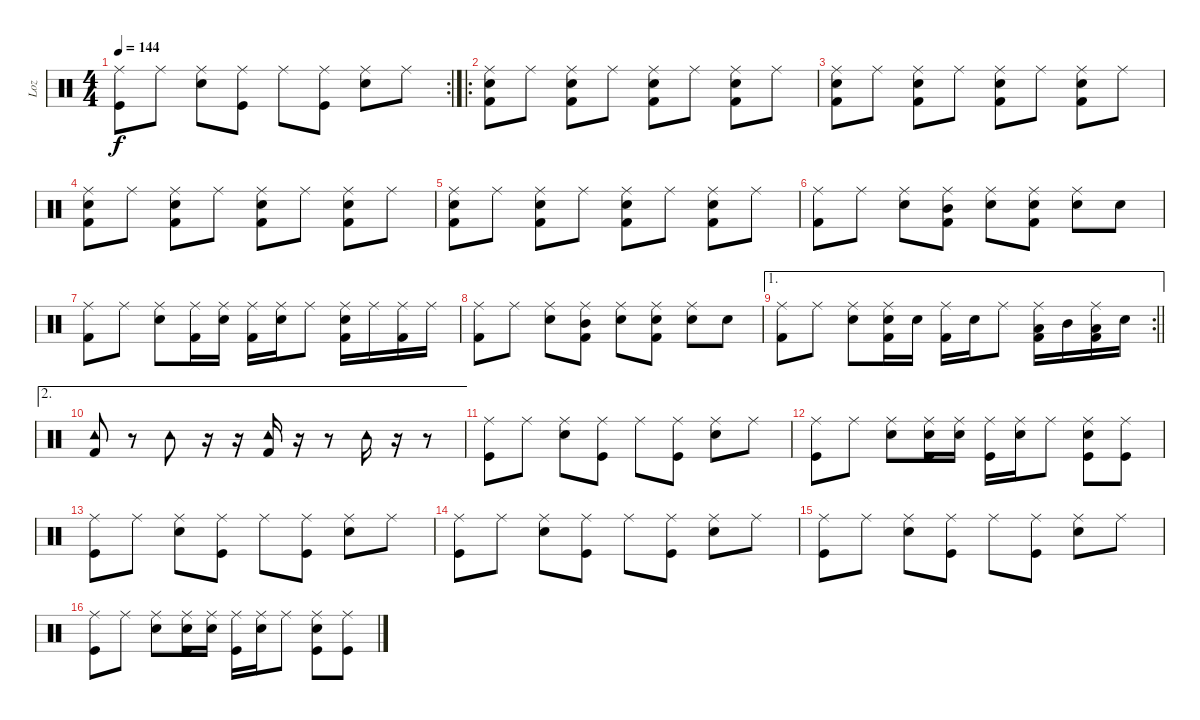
\track ("Loz" "Loz") {instrument percussion}
\staff {score}
\articulation defaults
\rc 2
\ts (4 4)
\tempo 144
\clef neutral
\ks c
("Ride (middle)" "Kick (hit)").8{dy f} "Ride (middle)".8 ("Ride (middle)" "Electric Snare (hit)").8 ("Ride (middle)" "Kick (hit)").8 "Ride (middle)".8 ("Ride (middle)" "Kick (hit)").8 ("Ride (middle)" "Electric Snare (hit)").8 "Ride (middle)".8 |
\ro
("Ride (middle)" "Electric Snare (hit)" "Kick (hit) 2").8 "Ride (middle)".8 ("Ride (middle)" "Electric Snare (hit)" "Kick (hit) 2").8 "Ride (middle)".8 ("Ride (middle)" "Electric Snare (hit)" "Kick (hit) 2").8 "Ride (middle)".8 ("Ride (middle)" "Electric Snare (hit)" "Kick (hit) 2").8 "Ride (middle)".8 |
("Ride (middle)" "Electric Snare (hit)" "Kick (hit) 2").8 "Ride (middle)".8 ("Ride (middle)" "Electric Snare (hit)" "Kick (hit) 2").8 "Ride (middle)".8 ("Ride (middle)" "Electric Snare (hit)" "Kick (hit) 2").8 "Ride (middle)".8 ("Ride (middle)" "Electric Snare (hit)" "Kick (hit) 2").8 "Ride (middle)".8 |
("Ride (middle)" "Electric Snare (hit)" "Kick (hit) 2").8 "Ride (middle)".8 ("Ride (middle)" "Electric Snare (hit)" "Kick (hit) 2").8 "Ride (middle)".8 ("Ride (middle)" "Electric Snare (hit)" "Kick (hit) 2").8 "Ride (middle)".8 ("Ride (middle)" "Electric Snare (hit)" "Kick (hit) 2").8 "Ride (middle)".8 |
("Ride (middle)" "Electric Snare (hit)" "Kick (hit) 2").8 "Ride (middle)".8 ("Ride (middle)" "Electric Snare (hit)" "Kick (hit) 2").8 "Ride (middle)".8 ("Ride (middle)" "Electric Snare (hit)" "Kick (hit) 2").8 "Ride (middle)".8 ("Ride (middle)" "Electric Snare (hit)" "Kick (hit) 2").8 "Ride (middle)".8 |
("Ride (middle)" "Kick (hit) 2").8 "Ride (middle)".8 ("Ride (middle)" "Electric Snare (hit)").8 ("Ride (middle)" "Mid Tom (hit)" "Kick (hit) 2").8 ("Ride (middle)" "Electric Snare (hit)").8 ("Ride (middle)" "Electric Snare (hit)" "Kick (hit) 2").8 ("Ride (middle)" "Electric Snare (hit)").8 "Electric Snare (hit)".8 |
("Ride (middle)" "Kick (hit) 2").8 "Ride (middle)".8 ("Ride (middle)" "Electric Snare (hit)").8 ("Ride (middle)" "Kick (hit) 2").16 ("Ride (middle)" "Electric Snare (hit)").16 ("Ride (middle)" "Kick (hit) 2").16 ("Ride (middle)" "Electric Snare (hit)").16 "Ride (middle)".8 ("Ride (middle)" "Electric Snare (hit)" "Kick (hit) 2").16 "Ride (middle)".16 ("Ride (middle)" "Kick (hit) 2").16 "Ride (middle)".16 |
("Ride (middle)" "Kick (hit) 2").8 "Ride (middle)".8 ("Ride (middle)" "Electric Snare (hit)").8 ("Ride (middle)" "Mid Tom (hit)" "Kick (hit) 2").8 ("Ride (middle)" "Electric Snare (hit)").8 ("Ride (middle)" "Electric Snare (hit)" "Kick (hit) 2").8 ("Ride (middle)" "Electric Snare (hit)").8 "Electric Snare (hit)".8 |
\ae 1
\rc 2
\barLineRight lightlight
("Ride (middle)" "Kick (hit) 2").8 "Ride (middle)".8 ("Ride (middle)" "Electric Snare (hit)").8 ("Ride (middle)" "Electric Snare (hit)" "Kick (hit) 2").16 "Electric Snare (hit)".16 ("Ride (middle)" "Kick (hit) 2").16 "Electric Snare (hit)".16 "Ride (middle)".8 ("Ride (middle)" "Low Tom (hit)" "Kick (hit) 2").16 "Mid Tom (hit)".16 ("Ride (middle)" "Low Tom (hit)" "Kick (hit) 2").16 "Electric Snare (hit)".16 |
\ae 2
("Tambourine (hit)" "Kick (hit) 2").8 r.8 "Tambourine (hit)".8 r.16 r.16 ("Tambourine (hit)" "Kick (hit) 2").16 r.16 r.8 "Tambourine (hit)".16 r.16 r.8 |
("Ride (middle)" "Kick (hit)").8 "Ride (middle)".8 ("Ride (middle)" "Electric Snare (hit)").8 ("Ride (middle)" "Kick (hit)").8 "Ride (middle)".8 ("Ride (middle)" "Kick (hit)").8 ("Ride (middle)" "Electric Snare (hit)").8 "Ride (middle)".8 |
("Ride (middle)" "Kick (hit)").8 "Ride (middle)".8 ("Ride (middle)" "Electric Snare (hit)").8 ("Ride (middle)" "Electric Snare (hit)" "Kick (hit)").16 ("Ride (middle)" "Electric Snare (hit)").16 ("Ride (middle)" "Kick (hit)").16 ("Ride (middle)" "Electric Snare (hit)").16 "Ride (middle)".8 ("Ride (middle)" "Electric Snare (hit)" "Kick (hit)").8 ("Ride (middle)" "Kick (hit)").8 |
("Ride (middle)" "Kick (hit)").8 "Ride (middle)".8 ("Ride (middle)" "Electric Snare (hit)").8 ("Ride (middle)" "Kick (hit)").8 "Ride (middle)".8 ("Ride (middle)" "Kick (hit)").8 ("Ride (middle)" "Electric Snare (hit)").8 "Ride (middle)".8 |
("Ride (middle)" "Kick (hit)").8 "Ride (middle)".8 ("Ride (middle)" "Electric Snare (hit)").8 ("Ride (middle)" "Kick (hit)").8 "Ride (middle)".8 ("Ride (middle)" "Kick (hit)").8 ("Ride (middle)" "Electric Snare (hit)").8 "Ride (middle)".8 |
("Ride (middle)" "Kick (hit)").8 "Ride (middle)".8 ("Ride (middle)" "Electric Snare (hit)").8 ("Ride (middle)" "Kick (hit)").8 "Ride (middle)".8 ("Ride (middle)" "Kick (hit)").8 ("Ride (middle)" "Electric Snare (hit)").8 "Ride (middle)".8 |
("Ride (middle)" "Kick (hit)").8 "Ride (middle)".8 ("Ride (middle)" "Electric Snare (hit)").8 ("Ride (middle)" "Electric Snare (hit)" "Kick (hit)").16 ("Ride (middle)" "Electric Snare (hit)").16 ("Ride (middle)" "Kick (hit)").16 ("Ride (middle)" "Electric Snare (hit)").16 "Ride (middle)".8 ("Ride (middle)" "Electric Snare (hit)" "Kick (hit)").8 ("Ride (middle)" "Kick (hit)").8
